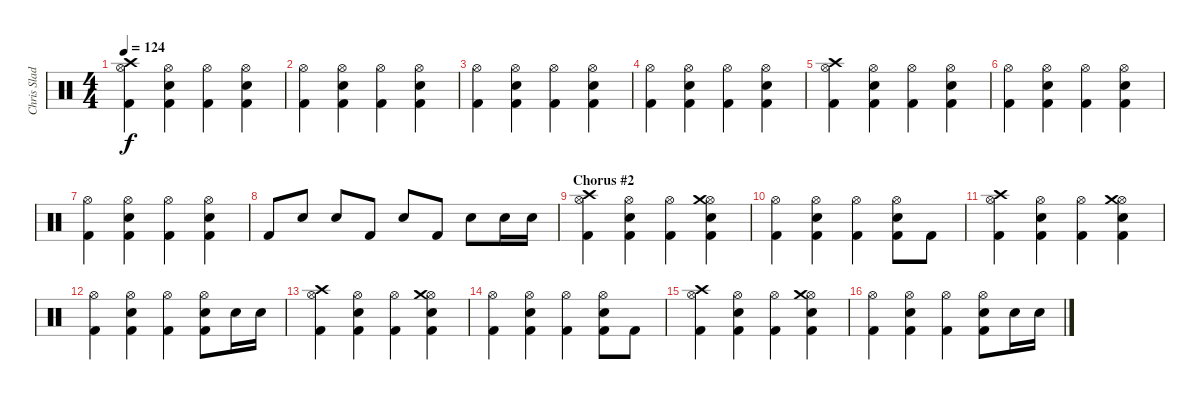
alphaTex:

\track ("Chris Slade" "Chris Slad") {instrument percussion}
\staff {score}
\articulation defaults
\ts (4 4)
\tempo 124
\clef neutral
\ks c
("Hi-Hat (open)" "Crash high (hit)" "Kick (hit) 2").4{dy f} ("Hi-Hat (open)" "Snare (hit) 2" "Kick (hit) 2").4 ("Hi-Hat (open)" "Kick (hit) 2").4 ("Hi-Hat (open)" "Snare (hit) 2" "Kick (hit) 2").4 |
("Hi-Hat (open)" "Kick (hit) 2").4 ("Hi-Hat (open)" "Snare (hit) 2" "Kick (hit) 2").4 ("Hi-Hat (open)" "Kick (hit) 2").4 ("Hi-Hat (open)" "Snare (hit) 2" "Kick (hit) 2").4 |
("Hi-Hat (open)" "Kick (hit) 2").4 ("Hi-Hat (open)" "Snare (hit) 2" "Kick (hit) 2").4 ("Hi-Hat (open)" "Kick (hit) 2").4 ("Hi-Hat (open)" "Snare (hit) 2" "Kick (hit) 2").4 |
("Hi-Hat (open)" "Kick (hit) 2").4 ("Hi-Hat (open)" "Snare (hit) 2" "Kick (hit) 2").4 ("Hi-Hat (open)" "Kick (hit) 2").4 ("Hi-Hat (open)" "Snare (hit) 2" "Kick (hit) 2").4 |
("Hi-Hat (open)" "Crash high (hit)" "Kick (hit) 2").4 ("Hi-Hat (open)" "Snare (hit) 2" "Kick (hit) 2").4 ("Hi-Hat (open)" "Kick (hit) 2").4 ("Hi-Hat (open)" "Snare (hit) 2" "Kick (hit) 2").4 |
("Hi-Hat (open)" "Kick (hit) 2").4 ("Hi-Hat (open)" "Snare (hit) 2" "Kick (hit) 2").4 ("Hi-Hat (open)" "Kick (hit) 2").4 ("Hi-Hat (open)" "Snare (hit) 2" "Kick (hit) 2").4 |
("Hi-Hat (open)" "Kick (hit) 2").4 ("Hi-Hat (open)" "Snare (hit) 2" "Kick (hit) 2").4 ("Hi-Hat (open)" "Kick (hit) 2").4 ("Hi-Hat (open)" "Snare (hit) 2" "Kick (hit) 2").4 |
"Kick (hit) 2".8 "Snare (hit) 2".8 "Snare (hit) 2".8 "Kick (hit) 2".8 "Snare (hit) 2".8 "Kick (hit) 2".8 "Snare (hit) 2".8 "Snare (hit) 2".16 "Snare (hit) 2".16 |
\section ("" "Chorus #2")
("Hi-Hat (open)" "Crash high (hit)" "Kick (hit) 2").4 ("Hi-Hat (open)" "Snare (hit) 2" "Kick (hit) 2").4 ("Hi-Hat (open)" "Kick (hit) 2").4 ("Hi-Hat (open)" "Crash medium (hit)" "Snare (hit) 2" "Kick (hit) 2").4 |
("Hi-Hat (open)" "Kick (hit) 2").4 ("Hi-Hat (open)" "Snare (hit) 2" "Kick (hit) 2").4 ("Hi-Hat (open)" "Kick (hit) 2").4 ("Hi-Hat (open)" "Snare (hit) 2" "Kick (hit) 2").8 "Kick (hit) 2".8 |
("Hi-Hat (open)" "Crash high (hit)" "Kick (hit) 2").4 ("Hi-Hat (open)" "Snare (hit) 2" "Kick (hit) 2").4 ("Hi-Hat (open)" "Kick (hit) 2").4 ("Hi-Hat (open)" "Crash medium (hit)" "Snare (hit) 2" "Kick (hit) 2").4 |
("Hi-Hat (open)" "Kick (hit) 2").4 ("Hi-Hat (open)" "Snare (hit) 2" "Kick (hit) 2").4 ("Hi-Hat (open)" "Kick (hit) 2").4 ("Hi-Hat (open)" "Snare (hit) 2" "Kick (hit) 2").8 "Snare (hit) 2".16 "Snare (hit) 2".16 |
("Hi-Hat (open)" "Crash high (hit)" "Kick (hit) 2").4 ("Hi-Hat (open)" "Snare (hit) 2" "Kick (hit) 2").4 ("Hi-Hat (open)" "Kick (hit) 2").4 ("Hi-Hat (open)" "Crash medium (hit)" "Snare (hit) 2" "Kick (hit) 2").4 |
("Hi-Hat (open)" "Kick (hit) 2").4 ("Hi-Hat (open)" "Snare (hit) 2" "Kick (hit) 2").4 ("Hi-Hat (open)" "Kick (hit) 2").4 ("Hi-Hat (open)" "Snare (hit) 2" "Kick (hit) 2").8 "Kick (hit) 2".8 |
("Hi-Hat (open)" "Crash high (hit)" "Kick (hit) 2").4 ("Hi-Hat (open)" "Snare (hit) 2" "Kick (hit) 2").4 ("Hi-Hat (open)" "Kick (hit) 2").4 ("Hi-Hat (open)" "Crash medium (hit)" "Snare (hit) 2" "Kick (hit) 2").4 |
("Hi-Hat (open)" "Kick (hit) 2").4 ("Hi-Hat (open)" "Snare (hit) 2" "Kick (hit) 2").4 ("Hi-Hat (open)" "Kick (hit) 2").4 ("Hi-Hat (open)" "Snare (hit) 2" "Kick (hit) 2").8 "Snare (hit) 2".16 "Snare (hit) 2".16
